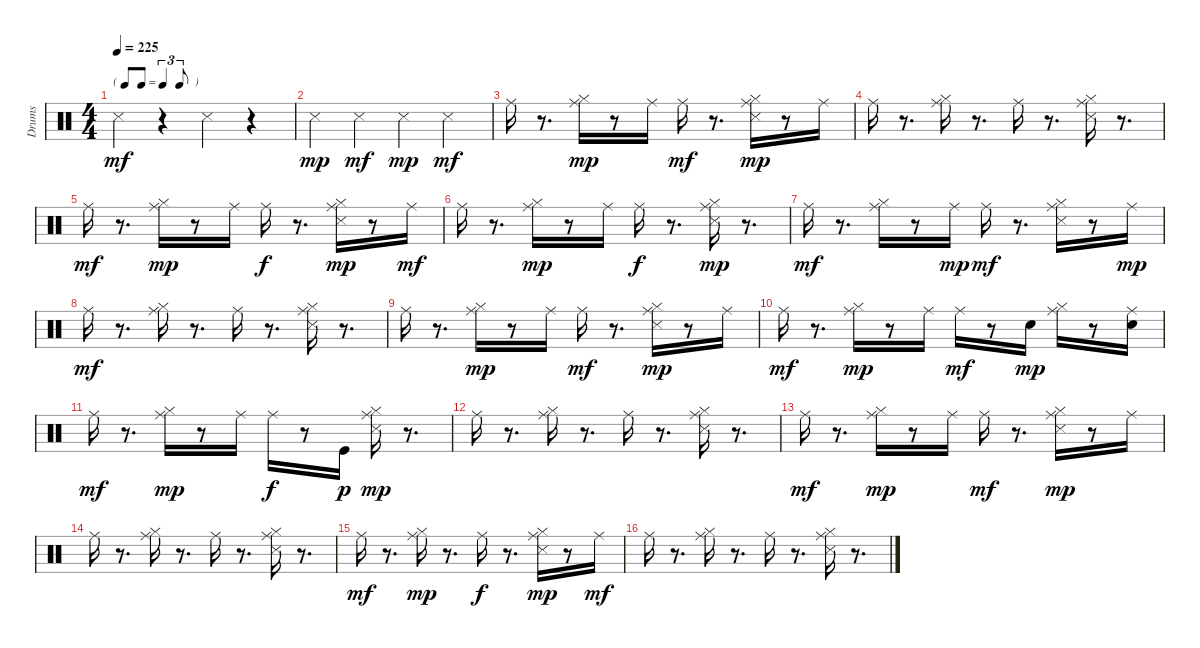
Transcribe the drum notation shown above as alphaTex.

\track ("Drums   " "Drums   ") {instrument percussion}
\staff {score}
\articulation defaults
\ts (4 4)
\tf triplet8th
\tempo 225
\clef neutral
\ks c "Snare (side stick) 3".4{dy mf}
r.4 "Snare (side stick) 3".4 r.4 |
"Snare (side stick) 3".4{dy mp} "Snare (side stick) 3".4{dy mf} "Snare (side stick) 3".4{dy mp} "Snare (side stick) 3".4{dy mf} |
"Ride (middle)".16 r.8{d} ("Hi-Hat (closed)" "Ride (middle)").16{dy mp} r.8 "Ride (middle)".16 "Ride (middle)".16{dy mf} r.8{d} ("Hi-Hat (closed)" "Snare (side stick) 3" "Ride (middle)").16{dy mp} r.8 "Ride (middle)".16 |
"Ride (middle)".16 r.8{d} ("Hi-Hat (closed)" "Ride (middle)").16 r.8{d} "Ride (middle)".16 r.8{d} ("Hi-Hat (closed)" "Snare (side stick) 3" "Ride (middle)").16 r.8{d} |
"Ride (middle)".16{dy mf} r.8{d} ("Hi-Hat (closed)" "Ride (middle)").16{dy mp} r.8 "Ride (middle)".16 "Ride (middle)".16{dy f} r.8{d} ("Hi-Hat (closed)" "Snare (side stick) 3" "Ride (middle)").16{dy mp} r.8 "Ride (middle)".16{dy mf} |
"Ride (middle)".16 r.8{d} ("Hi-Hat (closed)" "Ride (middle)").16{dy mp} r.8 "Ride (middle)".16 "Ride (middle)".16{dy f} r.8{d} ("Hi-Hat (closed)" "Snare (side stick) 3" "Ride (middle)").16{dy mp} r.8{d} |
"Ride (middle)".16{dy mf} r.8{d} ("Hi-Hat (closed)" "Ride (middle)").16 r.8 "Ride (middle)".16{dy mp} "Ride (middle)".16{dy mf} r.8{d} ("Hi-Hat (closed)" "Snare (side stick) 3" "Ride (middle)").16 r.8 "Ride (middle)".16{dy mp} |
"Ride (middle)".16{dy mf} r.8{d} ("Hi-Hat (closed)" "Ride (middle)").16 r.8{d} "Ride (middle)".16 r.8{d} ("Hi-Hat (closed)" "Snare (side stick) 3" "Ride (middle)").16 r.8{d} |
"Ride (middle)".16 r.8{d} ("Hi-Hat (closed)" "Ride (middle)").16{dy mp} r.8 "Ride (middle)".16 "Ride (middle)".16{dy mf} r.8{d} ("Hi-Hat (closed)" "Snare (side stick) 3" "Ride (middle)").16{dy mp} r.8 "Ride (middle)".16 |
"Ride (middle)".16{dy mf} r.8{d} ("Hi-Hat (closed)" "Ride (middle)").16{dy mp} r.8 "Ride (middle)".16 "Ride (middle)".16{dy mf} r.8 "Snare (hit) 2".16{dy mp} ("Hi-Hat (closed)" "Ride (middle)").16 r.8 ("Snare (hit) 2" "Ride (middle)").16 |
"Ride (middle)".16{dy mf} r.8{d} ("Hi-Hat (closed)" "Ride (middle)").16{dy mp} r.8 "Ride (middle)".16 "Ride (middle)".16{dy f} r.8 "Kick (hit)".16{dy p} ("Hi-Hat (closed)" "Snare (side stick) 3" "Ride (middle)").16{dy mp} r.8{d} |
"Ride (middle)".16 r.8{d} ("Hi-Hat (closed)" "Ride (middle)").16 r.8{d} "Ride (middle)".16 r.8{d} ("Hi-Hat (closed)" "Snare (side stick) 3" "Ride (middle)").16 r.8{d} |
"Ride (middle)".16{dy mf} r.8{d} ("Hi-Hat (closed)" "Ride (middle)").16{dy mp} r.8 "Ride (middle)".16 "Ride (middle)".16{dy mf} r.8{d} ("Hi-Hat (closed)" "Snare (side stick) 3" "Ride (middle)").16{dy mp} r.8 "Ride (middle)".16 |
"Ride (middle)".16 r.8{d} ("Hi-Hat (closed)" "Ride (middle)").16 r.8{d} "Ride (middle)".16 r.8{d} ("Hi-Hat (closed)" "Snare (side stick) 3" "Ride (middle)").16 r.8{d} |
"Ride (middle)".16{dy mf} r.8{d} ("Hi-Hat (closed)" "Ride (middle)").16{dy mp} r.8{d} "Ride (middle)".16{dy f} r.8{d} ("Hi-Hat (closed)" "Snare (side stick) 3" "Ride (middle)").16{dy mp} r.8 "Ride (middle)".16{dy mf} |
"Ride (middle)".16 r.8{d} ("Hi-Hat (closed)" "Ride (middle)").16 r.8{d} "Ride (middle)".16 r.8{d} ("Hi-Hat (closed)" "Snare (side stick) 3" "Ride (middle)").16 r.8{d}
